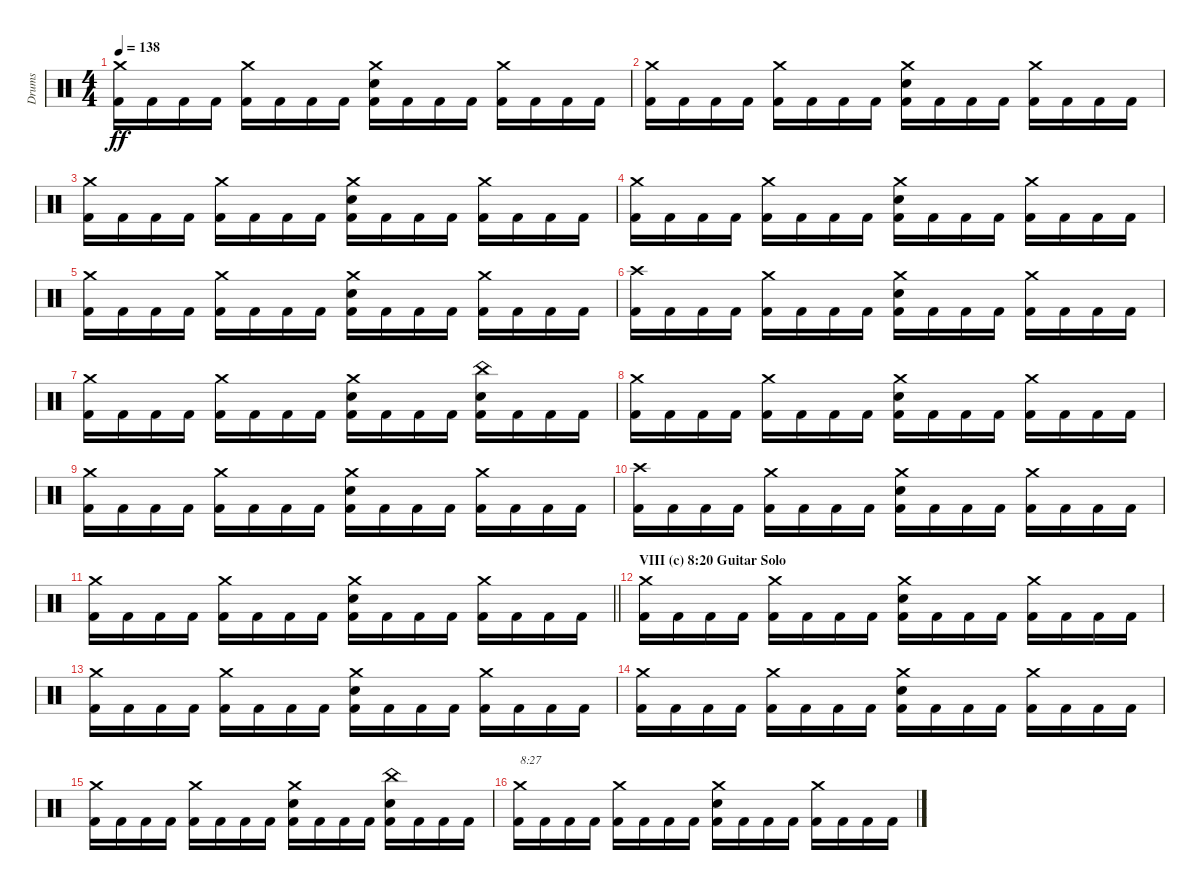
\track ("Drums" "Drums") {instrument percussion}
\staff {score}
\articulation defaults
\ts (4 4)
\tempo 138
\clef neutral
\ks c
("Crash medium (hit)" "Kick (hit) 2").16{dy ff} "Kick (hit) 2".16 "Kick (hit) 2".16 "Kick (hit) 2".16 ("Crash medium (hit)" "Kick (hit) 2").16 "Kick (hit) 2".16 "Kick (hit) 2".16 "Kick (hit) 2".16 ("Crash medium (hit)" "Electric Snare (hit)" "Kick (hit) 2").16 "Kick (hit) 2".16 "Kick (hit) 2".16 "Kick (hit) 2".16 ("Crash medium (hit)" "Kick (hit) 2").16 "Kick (hit) 2".16 "Kick (hit) 2".16 "Kick (hit) 2".16 |
("Crash medium (hit)" "Kick (hit) 2").16 "Kick (hit) 2".16 "Kick (hit) 2".16 "Kick (hit) 2".16 ("Crash medium (hit)" "Kick (hit) 2").16 "Kick (hit) 2".16 "Kick (hit) 2".16 "Kick (hit) 2".16 ("Crash medium (hit)" "Electric Snare (hit)" "Kick (hit) 2").16 "Kick (hit) 2".16 "Kick (hit) 2".16 "Kick (hit) 2".16 ("Crash medium (hit)" "Kick (hit) 2").16 "Kick (hit) 2".16 "Kick (hit) 2".16 "Kick (hit) 2".16 |
("Crash medium (hit)" "Kick (hit) 2").16 "Kick (hit) 2".16 "Kick (hit) 2".16 "Kick (hit) 2".16 ("Crash medium (hit)" "Kick (hit) 2").16 "Kick (hit) 2".16 "Kick (hit) 2".16 "Kick (hit) 2".16 ("Crash medium (hit)" "Electric Snare (hit)" "Kick (hit) 2").16 "Kick (hit) 2".16 "Kick (hit) 2".16 "Kick (hit) 2".16 ("Crash medium (hit)" "Kick (hit) 2").16 "Kick (hit) 2".16 "Kick (hit) 2".16 "Kick (hit) 2".16 |
("Crash medium (hit)" "Kick (hit) 2").16 "Kick (hit) 2".16 "Kick (hit) 2".16 "Kick (hit) 2".16 ("Crash medium (hit)" "Kick (hit) 2").16 "Kick (hit) 2".16 "Kick (hit) 2".16 "Kick (hit) 2".16 ("Crash medium (hit)" "Electric Snare (hit)" "Kick (hit) 2").16 "Kick (hit) 2".16 "Kick (hit) 2".16 "Kick (hit) 2".16 ("Crash medium (hit)" "Kick (hit) 2").16 "Kick (hit) 2".16 "Kick (hit) 2".16 "Kick (hit) 2".16 |
("Crash medium (hit)" "Kick (hit) 2").16 "Kick (hit) 2".16 "Kick (hit) 2".16 "Kick (hit) 2".16 ("Crash medium (hit)" "Kick (hit) 2").16 "Kick (hit) 2".16 "Kick (hit) 2".16 "Kick (hit) 2".16 ("Crash medium (hit)" "Electric Snare (hit)" "Kick (hit) 2").16 "Kick (hit) 2".16 "Kick (hit) 2".16 "Kick (hit) 2".16 ("Crash medium (hit)" "Kick (hit) 2").16 "Kick (hit) 2".16 "Kick (hit) 2".16 "Kick (hit) 2".16 |
("Crash high (hit)" "Kick (hit) 2").16 "Kick (hit) 2".16 "Kick (hit) 2".16 "Kick (hit) 2".16 ("Crash medium (hit)" "Kick (hit) 2").16 "Kick (hit) 2".16 "Kick (hit) 2".16 "Kick (hit) 2".16 ("Crash medium (hit)" "Electric Snare (hit)" "Kick (hit) 2").16 "Kick (hit) 2".16 "Kick (hit) 2".16 "Kick (hit) 2".16 ("Crash medium (hit)" "Kick (hit) 2").16 "Kick (hit) 2".16 "Kick (hit) 2".16 "Kick (hit) 2".16 |
("Crash medium (hit)" "Kick (hit) 2").16 "Kick (hit) 2".16 "Kick (hit) 2".16 "Kick (hit) 2".16 ("Crash medium (hit)" "Kick (hit) 2").16 "Kick (hit) 2".16 "Kick (hit) 2".16 "Kick (hit) 2".16 ("Crash medium (hit)" "Electric Snare (hit)" "Kick (hit) 2").16 "Kick (hit) 2".16 "Kick (hit) 2".16 "Kick (hit) 2".16 ("China (hit)" "Electric Snare (hit)" "Kick (hit) 2").16 "Kick (hit) 2".16 "Kick (hit) 2".16 "Kick (hit) 2".16 |
("Crash medium (hit)" "Kick (hit) 2").16 "Kick (hit) 2".16 "Kick (hit) 2".16 "Kick (hit) 2".16 ("Crash medium (hit)" "Kick (hit) 2").16 "Kick (hit) 2".16 "Kick (hit) 2".16 "Kick (hit) 2".16 ("Crash medium (hit)" "Electric Snare (hit)" "Kick (hit) 2").16 "Kick (hit) 2".16 "Kick (hit) 2".16 "Kick (hit) 2".16 ("Crash medium (hit)" "Kick (hit) 2").16 "Kick (hit) 2".16 "Kick (hit) 2".16 "Kick (hit) 2".16 |
("Crash medium (hit)" "Kick (hit) 2").16 "Kick (hit) 2".16 "Kick (hit) 2".16 "Kick (hit) 2".16 ("Crash medium (hit)" "Kick (hit) 2").16 "Kick (hit) 2".16 "Kick (hit) 2".16 "Kick (hit) 2".16 ("Crash medium (hit)" "Electric Snare (hit)" "Kick (hit) 2").16 "Kick (hit) 2".16 "Kick (hit) 2".16 "Kick (hit) 2".16 ("Crash medium (hit)" "Kick (hit) 2").16 "Kick (hit) 2".16 "Kick (hit) 2".16 "Kick (hit) 2".16 |
("Crash high (hit)" "Kick (hit) 2").16 "Kick (hit) 2".16 "Kick (hit) 2".16 "Kick (hit) 2".16 ("Crash medium (hit)" "Kick (hit) 2").16 "Kick (hit) 2".16 "Kick (hit) 2".16 "Kick (hit) 2".16 ("Crash medium (hit)" "Electric Snare (hit)" "Kick (hit) 2").16 "Kick (hit) 2".16 "Kick (hit) 2".16 "Kick (hit) 2".16 ("Crash medium (hit)" "Kick (hit) 2").16 "Kick (hit) 2".16 "Kick (hit) 2".16 "Kick (hit) 2".16 |
\barLineRight lightlight
("Crash medium (hit)" "Kick (hit) 2").16 "Kick (hit) 2".16 "Kick (hit) 2".16 "Kick (hit) 2".16 ("Crash medium (hit)" "Kick (hit) 2").16 "Kick (hit) 2".16 "Kick (hit) 2".16 "Kick (hit) 2".16 ("Crash medium (hit)" "Electric Snare (hit)" "Kick (hit) 2").16 "Kick (hit) 2".16 "Kick (hit) 2".16 "Kick (hit) 2".16 ("Crash medium (hit)" "Kick (hit) 2").16 "Kick (hit) 2".16 "Kick (hit) 2".16 "Kick (hit) 2".16 |
\section ("" "VIII (c) 8:20 Guitar Solo")
("Crash medium (hit)" "Kick (hit) 2").16 "Kick (hit) 2".16 "Kick (hit) 2".16 "Kick (hit) 2".16 ("Crash medium (hit)" "Kick (hit) 2").16 "Kick (hit) 2".16 "Kick (hit) 2".16 "Kick (hit) 2".16 ("Crash medium (hit)" "Electric Snare (hit)" "Kick (hit) 2").16 "Kick (hit) 2".16 "Kick (hit) 2".16 "Kick (hit) 2".16 ("Crash medium (hit)" "Kick (hit) 2").16 "Kick (hit) 2".16 "Kick (hit) 2".16 "Kick (hit) 2".16 |
("Crash medium (hit)" "Kick (hit) 2").16 "Kick (hit) 2".16 "Kick (hit) 2".16 "Kick (hit) 2".16 ("Crash medium (hit)" "Kick (hit) 2").16 "Kick (hit) 2".16 "Kick (hit) 2".16 "Kick (hit) 2".16 ("Crash medium (hit)" "Electric Snare (hit)" "Kick (hit) 2").16 "Kick (hit) 2".16 "Kick (hit) 2".16 "Kick (hit) 2".16 ("Crash medium (hit)" "Kick (hit) 2").16 "Kick (hit) 2".16 "Kick (hit) 2".16 "Kick (hit) 2".16 |
("Crash medium (hit)" "Kick (hit) 2").16 "Kick (hit) 2".16 "Kick (hit) 2".16 "Kick (hit) 2".16 ("Crash medium (hit)" "Kick (hit) 2").16 "Kick (hit) 2".16 "Kick (hit) 2".16 "Kick (hit) 2".16 ("Crash medium (hit)" "Electric Snare (hit)" "Kick (hit) 2").16 "Kick (hit) 2".16 "Kick (hit) 2".16 "Kick (hit) 2".16 ("Crash medium (hit)" "Kick (hit) 2").16 "Kick (hit) 2".16 "Kick (hit) 2".16 "Kick (hit) 2".16 |
("Crash medium (hit)" "Kick (hit) 2").16 "Kick (hit) 2".16 "Kick (hit) 2".16 "Kick (hit) 2".16 ("Crash medium (hit)" "Kick (hit) 2").16 "Kick (hit) 2".16 "Kick (hit) 2".16 "Kick (hit) 2".16 ("Crash medium (hit)" "Electric Snare (hit)" "Kick (hit) 2").16 "Kick (hit) 2".16 "Kick (hit) 2".16 "Kick (hit) 2".16 ("China (hit)" "Electric Snare (hit)" "Kick (hit) 2").16 "Kick (hit) 2".16 "Kick (hit) 2".16 "Kick (hit) 2".16 |
("Crash medium (hit)" "Kick (hit) 2").16{txt "8:27"} "Kick (hit) 2".16 "Kick (hit) 2".16 "Kick (hit) 2".16 ("Crash medium (hit)" "Kick (hit) 2").16 "Kick (hit) 2".16 "Kick (hit) 2".16 "Kick (hit) 2".16 ("Crash medium (hit)" "Electric Snare (hit)" "Kick (hit) 2").16 "Kick (hit) 2".16 "Kick (hit) 2".16 "Kick (hit) 2".16 ("Crash medium (hit)" "Kick (hit) 2").16 "Kick (hit) 2".16 "Kick (hit) 2".16 "Kick (hit) 2".16
